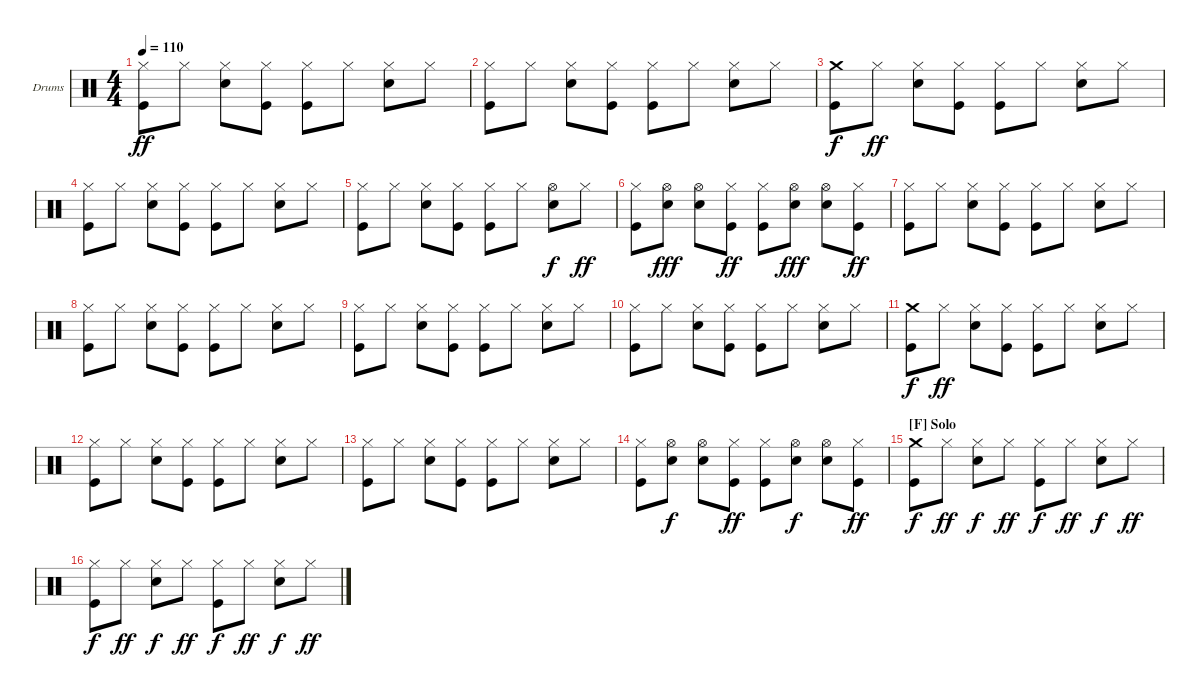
\bracketExtendMode groupsimilarinstruments
\firstSystemTrackNameOrientation horizontal
\otherSystemsTrackNameOrientation horizontal
\track ("Drum Kit" "Drums") {instrument percussion}
\staff {score}
\articulation defaults
\ts (4 4)
\tempo 110
\clef neutral
\scale
0.333333
\ks c
("Hi-Hat (closed)" "Kick (hit)").8{dy ff} "Hi-Hat (closed)".8 ("Hi-Hat (closed)" "Snare (hit) 2").8 ("Hi-Hat (closed)" "Kick (hit)").8 ("Hi-Hat (closed)" "Kick (hit)").8 "Hi-Hat (closed)".8 ("Hi-Hat (closed)" "Snare (hit) 2").8 "Hi-Hat (closed)".8 |
\scale
0.333333 ("Hi-Hat (closed)" "Kick (hit)").8 "Hi-Hat (closed)".8 ("Hi-Hat (closed)" "Snare (hit) 2").8 ("Hi-Hat (closed)" "Kick (hit)").8 ("Hi-Hat (closed)" "Kick (hit)").8 "Hi-Hat (closed)".8 ("Hi-Hat (closed)" "Snare (hit) 2").8 "Hi-Hat (closed)".8 |
\scale
0.333333 ("Crash medium (hit)" "Kick (hit)").8{dy f} "Hi-Hat (closed)".8{dy ff} ("Hi-Hat (closed)" "Snare (hit) 2").8 ("Hi-Hat (closed)" "Kick (hit)").8 ("Hi-Hat (closed)" "Kick (hit)").8 "Hi-Hat (closed)".8 ("Hi-Hat (closed)" "Snare (hit) 2").8 "Hi-Hat (closed)".8 |
\scale
0.333333 ("Hi-Hat (closed)" "Kick (hit)").8 "Hi-Hat (closed)".8 ("Hi-Hat (closed)" "Snare (hit) 2").8 ("Hi-Hat (closed)" "Kick (hit)").8 ("Hi-Hat (closed)" "Kick (hit)").8 "Hi-Hat (closed)".8 ("Hi-Hat (closed)" "Snare (hit) 2").8 "Hi-Hat (closed)".8 |
\scale
0.333333 ("Hi-Hat (closed)" "Kick (hit)").8 "Hi-Hat (closed)".8 ("Hi-Hat (closed)" "Snare (hit) 2").8 ("Hi-Hat (closed)" "Kick (hit)").8 ("Hi-Hat (closed)" "Kick (hit)").8 "Hi-Hat (closed)".8 ("Hi-Hat (open)" "Snare (hit) 2").8{dy f} "Hi-Hat (closed)".8{dy ff} |
\scale
0.333333 ("Hi-Hat (closed)" "Kick (hit)").8 ("Hi-Hat (open)" "Snare (hit) 2").8{dy fff} ("Hi-Hat (open)" "Snare (hit) 2").8 ("Hi-Hat (closed)" "Kick (hit)").8{dy ff} ("Hi-Hat (closed)" "Kick (hit)").8 ("Hi-Hat (open)" "Snare (hit) 2").8{dy fff} ("Hi-Hat (open)" "Snare (hit) 2").8 ("Hi-Hat (closed)" "Kick (hit)").8{dy ff} |
\scale
0.333333 ("Hi-Hat (closed)" "Kick (hit)").8 "Hi-Hat (closed)".8 ("Hi-Hat (closed)" "Snare (hit) 2").8 ("Hi-Hat (closed)" "Kick (hit)").8 ("Hi-Hat (closed)" "Kick (hit)").8 "Hi-Hat (closed)".8 ("Hi-Hat (closed)" "Snare (hit) 2").8 "Hi-Hat (closed)".8 |
\scale
0.333333 ("Hi-Hat (closed)" "Kick (hit)").8 "Hi-Hat (closed)".8 ("Hi-Hat (closed)" "Snare (hit) 2").8 ("Hi-Hat (closed)" "Kick (hit)").8 ("Hi-Hat (closed)" "Kick (hit)").8 "Hi-Hat (closed)".8 ("Hi-Hat (closed)" "Snare (hit) 2").8 "Hi-Hat (closed)".8 |
\scale
0.333333 ("Hi-Hat (closed)" "Kick (hit)").8 "Hi-Hat (closed)".8 ("Hi-Hat (closed)" "Snare (hit) 2").8 ("Hi-Hat (closed)" "Kick (hit)").8 ("Hi-Hat (closed)" "Kick (hit)").8 "Hi-Hat (closed)".8 ("Hi-Hat (closed)" "Snare (hit) 2").8 "Hi-Hat (closed)".8 |
\scale
0.333333 ("Hi-Hat (closed)" "Kick (hit)").8 "Hi-Hat (closed)".8 ("Hi-Hat (closed)" "Snare (hit) 2").8 ("Hi-Hat (closed)" "Kick (hit)").8 ("Hi-Hat (closed)" "Kick (hit)").8 "Hi-Hat (closed)".8 ("Hi-Hat (closed)" "Snare (hit) 2").8 "Hi-Hat (closed)".8 |
\scale
0.333333 ("Crash medium (hit)" "Kick (hit)").8{dy f} "Hi-Hat (closed)".8{dy ff} ("Hi-Hat (closed)" "Snare (hit) 2").8 ("Hi-Hat (closed)" "Kick (hit)").8 ("Hi-Hat (closed)" "Kick (hit)").8 "Hi-Hat (closed)".8 ("Hi-Hat (closed)" "Snare (hit) 2").8 "Hi-Hat (closed)".8 |
\scale
0.333333 ("Hi-Hat (closed)" "Kick (hit)").8 "Hi-Hat (closed)".8 ("Hi-Hat (closed)" "Snare (hit) 2").8 ("Hi-Hat (closed)" "Kick (hit)").8 ("Hi-Hat (closed)" "Kick (hit)").8 "Hi-Hat (closed)".8 ("Hi-Hat (closed)" "Snare (hit) 2").8 "Hi-Hat (closed)".8 |
\scale
0.333333 ("Hi-Hat (closed)" "Kick (hit)").8 "Hi-Hat (closed)".8 ("Hi-Hat (closed)" "Snare (hit) 2").8 ("Hi-Hat (closed)" "Kick (hit)").8 ("Hi-Hat (closed)" "Kick (hit)").8 "Hi-Hat (closed)".8 ("Hi-Hat (closed)" "Snare (hit) 2").8 "Hi-Hat (closed)".8 |
\scale
0.333333 ("Hi-Hat (closed)" "Kick (hit)").8 ("Hi-Hat (open)" "Snare (hit) 2").8{dy f} ("Hi-Hat (open)" "Snare (hit) 2").8 ("Hi-Hat (closed)" "Kick (hit)").8{dy ff} ("Hi-Hat (closed)" "Kick (hit)").8 ("Hi-Hat (open)" "Snare (hit) 2").8{dy f} ("Hi-Hat (open)" "Snare (hit) 2").8 ("Hi-Hat (closed)" "Kick (hit)").8{dy ff} |
\section ("F" "Solo")
\scale
0.333333 ("Crash medium (hit)" "Kick (hit)").8{dy f} "Hi-Hat (closed)".8{dy ff} ("Hi-Hat (closed)" "Snare (hit) 2").8{dy f} "Hi-Hat (closed)".8{dy ff} ("Hi-Hat (closed)" "Kick (hit)").8{dy f} "Hi-Hat (closed)".8{dy ff} ("Hi-Hat (closed)" "Snare (hit) 2").8{dy f} "Hi-Hat (closed)".8{dy ff} |
\scale
0.333333 ("Hi-Hat (closed)" "Kick (hit)").8{dy f} "Hi-Hat (closed)".8{dy ff} ("Hi-Hat (closed)" "Snare (hit) 2").8{dy f} "Hi-Hat (closed)".8{dy ff} ("Hi-Hat (closed)" "Kick (hit)").8{dy f} "Hi-Hat (closed)".8{dy ff} ("Hi-Hat (closed)" "Snare (hit) 2").8{dy f} "Hi-Hat (closed)".8{dy ff}
